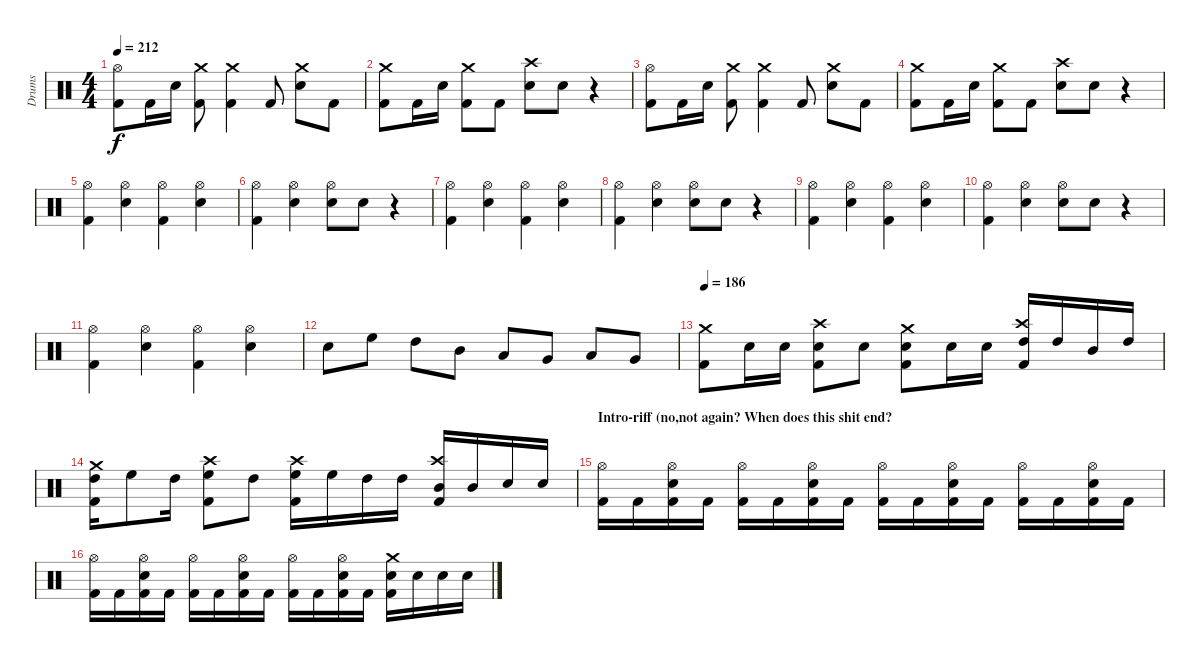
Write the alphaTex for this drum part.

\track ("Drums" "Drums") {instrument percussion}
\staff {score}
\articulation defaults
\ts (4 4)
\tempo 212
\clef neutral
\ks c
("Hi-Hat (open)" "Kick (hit) 2").8{dy f} "Kick (hit) 2".16 "Electric Snare (hit)".16 ("Crash medium (hit)" "Kick (hit) 2").8 ("Crash medium (hit)" "Kick (hit) 2").4 "Kick (hit) 2".8 ("Crash medium (hit)" "Electric Snare (hit)").8 "Kick (hit) 2".8 |
("Crash medium (hit)" "Kick (hit) 2").8 "Kick (hit) 2".16 "Electric Snare (hit)".16 ("Crash medium (hit)" "Kick (hit) 2").8 "Kick (hit) 2".8 ("Crash high (hit)" "Electric Snare (hit)").8 "Electric Snare (hit)".8 r.4 |
("Hi-Hat (open)" "Kick (hit) 2").8 "Kick (hit) 2".16 "Electric Snare (hit)".16 ("Crash medium (hit)" "Kick (hit) 2").8 ("Crash medium (hit)" "Kick (hit) 2").4 "Kick (hit) 2".8 ("Crash medium (hit)" "Electric Snare (hit)").8 "Kick (hit) 2".8 |
("Crash medium (hit)" "Kick (hit) 2").8 "Kick (hit) 2".16 "Electric Snare (hit)".16 ("Crash medium (hit)" "Kick (hit) 2").8 "Kick (hit) 2".8 ("Crash high (hit)" "Electric Snare (hit)").8 "Electric Snare (hit)".8 r.4 |
("Hi-Hat (open)" "Kick (hit) 2").4 ("Hi-Hat (open)" "Electric Snare (hit)").4 ("Hi-Hat (open)" "Kick (hit) 2").4 ("Hi-Hat (open)" "Electric Snare (hit)").4 |
("Hi-Hat (open)" "Kick (hit) 2").4 ("Hi-Hat (open)" "Electric Snare (hit)").4 ("Hi-Hat (open)" "Electric Snare (hit)").8 "Electric Snare (hit)".8 r.4 |
("Hi-Hat (open)" "Kick (hit) 2").4 ("Hi-Hat (open)" "Electric Snare (hit)").4 ("Hi-Hat (open)" "Kick (hit) 2").4 ("Hi-Hat (open)" "Electric Snare (hit)").4 |
("Hi-Hat (open)" "Kick (hit) 2").4 ("Hi-Hat (open)" "Electric Snare (hit)").4 ("Hi-Hat (open)" "Electric Snare (hit)").8 "Electric Snare (hit)".8 r.4 |
("Hi-Hat (open)" "Kick (hit) 2").4 ("Hi-Hat (open)" "Electric Snare (hit)").4 ("Hi-Hat (open)" "Kick (hit) 2").4 ("Hi-Hat (open)" "Electric Snare (hit)").4 |
("Hi-Hat (open)" "Kick (hit) 2").4 ("Hi-Hat (open)" "Electric Snare (hit)").4 ("Hi-Hat (open)" "Electric Snare (hit)").8 "Electric Snare (hit)".8 r.4 |
("Hi-Hat (open)" "Kick (hit) 2").4 ("Hi-Hat (open)" "Electric Snare (hit)").4 ("Hi-Hat (open)" "Kick (hit) 2").4 ("Hi-Hat (open)" "Electric Snare (hit)").4 |
"Electric Snare (hit)".8 "High Floor Tom (hit)".8 "High Tom (hit)".8 "Mid Tom (hit)".8 "Low Tom (hit)".8 "Very Low Tom (hit)".8 "Low Floor Tom (hit)".8 "Very Low Tom (hit)".8 |
\tempo 186
("Crash medium (hit)" "Kick (hit) 2").8 "Electric Snare (hit)".16 "Electric Snare (hit)".16 ("Crash high (hit)" "Electric Snare (hit)" "Kick (hit) 2").8 "Electric Snare (hit)".8 ("Crash medium (hit)" "Electric Snare (hit)" "Kick (hit) 2").8 "Electric Snare (hit)".16 "Electric Snare (hit)".16 ("Crash high (hit)" "High Tom (hit)" "Kick (hit) 2").16 "High Tom (hit)".16 "Mid Tom (hit)".16 "High Tom (hit)".16 |
("Crash medium (hit)" "High Tom (hit)" "Kick (hit) 2").16 "High Floor Tom (hit)".8 "High Tom (hit)".16 ("Crash high (hit)" "High Floor Tom (hit)" "Kick (hit) 2").8 "High Tom (hit)".8 ("Crash high (hit)" "High Floor Tom (hit)" "Kick (hit) 2").16 "High Floor Tom (hit)".16 "High Tom (hit)".16 "High Tom (hit)".16 ("Crash high (hit)" "Mid Tom (hit)" "Kick (hit) 2").16 "Mid Tom (hit)".16 "Electric Snare (hit)".16 "Electric Snare (hit)".16 |
\section ("" "Intro-riff (no,not again? When does this shit end?")
("Hi-Hat (open)" "Kick (hit) 2").16 "Kick (hit) 2".16 ("Electric Snare (hit)" "Hi-Hat (open)" "Kick (hit) 2").16 "Kick (hit) 2".16 ("Hi-Hat (open)" "Kick (hit) 2").16 "Kick (hit) 2".16 ("Electric Snare (hit)" "Hi-Hat (open)" "Kick (hit) 2").16 "Kick (hit) 2".16 ("Hi-Hat (open)" "Kick (hit) 2").16 "Kick (hit) 2".16 ("Electric Snare (hit)" "Hi-Hat (open)" "Kick (hit) 2").16 "Kick (hit) 2".16 ("Hi-Hat (open)" "Kick (hit) 2").16 "Kick (hit) 2".16 ("Electric Snare (hit)" "Hi-Hat (open)" "Kick (hit) 2").16 "Kick (hit) 2".16 |
("Hi-Hat (open)" "Kick (hit) 2").16 "Kick (hit) 2".16 ("Electric Snare (hit)" "Hi-Hat (open)" "Kick (hit) 2").16 "Kick (hit) 2".16 ("Hi-Hat (open)" "Kick (hit) 2").16 "Kick (hit) 2".16 ("Electric Snare (hit)" "Hi-Hat (open)" "Kick (hit) 2").16 "Kick (hit) 2".16 ("Hi-Hat (open)" "Kick (hit) 2").16 "Kick (hit) 2".16 ("Electric Snare (hit)" "Hi-Hat (open)" "Kick (hit) 2").16 "Kick (hit) 2".16 ("Crash medium (hit)" "Kick (hit) 2" "Electric Snare (hit)").16 "Electric Snare (hit)".16 "Electric Snare (hit)".16 "Electric Snare (hit)".16
